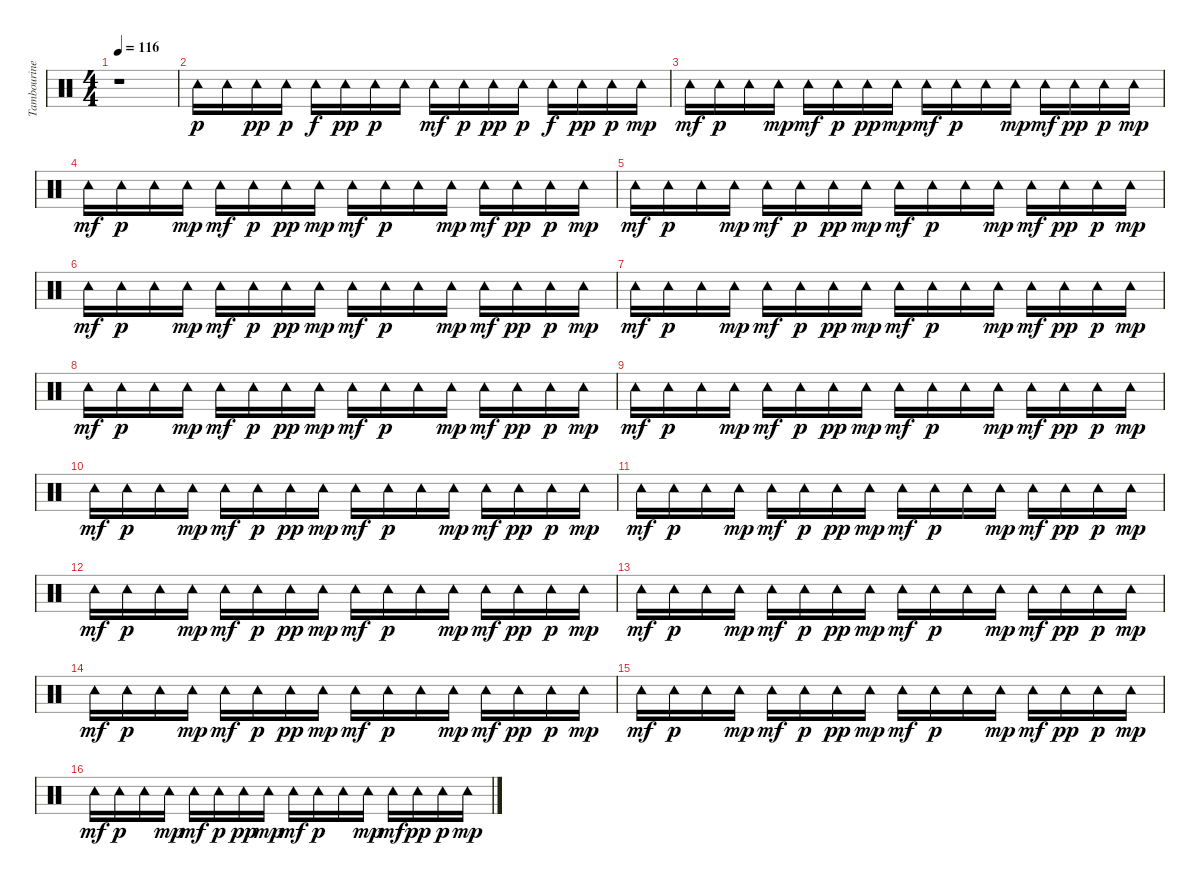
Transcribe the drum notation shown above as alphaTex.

\track ("Tambourine" "Tambourine") {instrument percussion}
\staff {score}
\articulation defaults
\ts (4 4)
\tempo 116
\clef neutral
\ks c
r.1{dy p} |
"Tambourine (hit)".16{volume 13} "Tambourine (hit)".16 "Tambourine (hit)".16{dy pp} "Tambourine (hit)".16{dy p} "Tambourine (hit)".16{dy f} "Tambourine (hit)".16{dy pp} "Tambourine (hit)".16{dy p} "Tambourine (hit)".16 "Tambourine (hit)".16{dy mf} "Tambourine (hit)".16{dy p} "Tambourine (hit)".16{dy pp} "Tambourine (hit)".16{dy p} "Tambourine (hit)".16{dy f} "Tambourine (hit)".16{dy pp} "Tambourine (hit)".16{dy p} "Tambourine (hit)".16{dy mp} |
"Tambourine (hit)".16{dy mf} "Tambourine (hit)".16{dy p} "Tambourine (hit)".16 "Tambourine (hit)".16{dy mp} "Tambourine (hit)".16{dy mf} "Tambourine (hit)".16{dy p} "Tambourine (hit)".16{dy pp} "Tambourine (hit)".16{dy mp} "Tambourine (hit)".16{dy mf} "Tambourine (hit)".16{dy p} "Tambourine (hit)".16 "Tambourine (hit)".16{dy mp} "Tambourine (hit)".16{dy mf} "Tambourine (hit)".16{dy pp} "Tambourine (hit)".16{dy p} "Tambourine (hit)".16{dy mp} |
"Tambourine (hit)".16{dy mf} "Tambourine (hit)".16{dy p} "Tambourine (hit)".16 "Tambourine (hit)".16{dy mp} "Tambourine (hit)".16{dy mf} "Tambourine (hit)".16{dy p} "Tambourine (hit)".16{dy pp} "Tambourine (hit)".16{dy mp} "Tambourine (hit)".16{dy mf} "Tambourine (hit)".16{dy p} "Tambourine (hit)".16 "Tambourine (hit)".16{dy mp} "Tambourine (hit)".16{dy mf} "Tambourine (hit)".16{dy pp} "Tambourine (hit)".16{dy p} "Tambourine (hit)".16{dy mp} |
"Tambourine (hit)".16{dy mf} "Tambourine (hit)".16{dy p} "Tambourine (hit)".16 "Tambourine (hit)".16{dy mp} "Tambourine (hit)".16{dy mf} "Tambourine (hit)".16{dy p} "Tambourine (hit)".16{dy pp} "Tambourine (hit)".16{dy mp} "Tambourine (hit)".16{dy mf} "Tambourine (hit)".16{dy p} "Tambourine (hit)".16 "Tambourine (hit)".16{dy mp} "Tambourine (hit)".16{dy mf} "Tambourine (hit)".16{dy pp} "Tambourine (hit)".16{dy p} "Tambourine (hit)".16{dy mp} |
"Tambourine (hit)".16{dy mf} "Tambourine (hit)".16{dy p} "Tambourine (hit)".16 "Tambourine (hit)".16{dy mp} "Tambourine (hit)".16{dy mf} "Tambourine (hit)".16{dy p} "Tambourine (hit)".16{dy pp} "Tambourine (hit)".16{dy mp} "Tambourine (hit)".16{dy mf} "Tambourine (hit)".16{dy p} "Tambourine (hit)".16 "Tambourine (hit)".16{dy mp} "Tambourine (hit)".16{dy mf} "Tambourine (hit)".16{dy pp} "Tambourine (hit)".16{dy p} "Tambourine (hit)".16{dy mp} |
"Tambourine (hit)".16{dy mf} "Tambourine (hit)".16{dy p} "Tambourine (hit)".16 "Tambourine (hit)".16{dy mp} "Tambourine (hit)".16{dy mf} "Tambourine (hit)".16{dy p} "Tambourine (hit)".16{dy pp} "Tambourine (hit)".16{dy mp} "Tambourine (hit)".16{dy mf} "Tambourine (hit)".16{dy p} "Tambourine (hit)".16 "Tambourine (hit)".16{dy mp} "Tambourine (hit)".16{dy mf} "Tambourine (hit)".16{dy pp} "Tambourine (hit)".16{dy p} "Tambourine (hit)".16{dy mp} |
"Tambourine (hit)".16{dy mf} "Tambourine (hit)".16{dy p} "Tambourine (hit)".16 "Tambourine (hit)".16{dy mp} "Tambourine (hit)".16{dy mf} "Tambourine (hit)".16{dy p} "Tambourine (hit)".16{dy pp} "Tambourine (hit)".16{dy mp} "Tambourine (hit)".16{dy mf} "Tambourine (hit)".16{dy p} "Tambourine (hit)".16 "Tambourine (hit)".16{dy mp} "Tambourine (hit)".16{dy mf} "Tambourine (hit)".16{dy pp} "Tambourine (hit)".16{dy p} "Tambourine (hit)".16{dy mp} |
"Tambourine (hit)".16{dy mf} "Tambourine (hit)".16{dy p} "Tambourine (hit)".16 "Tambourine (hit)".16{dy mp} "Tambourine (hit)".16{dy mf} "Tambourine (hit)".16{dy p} "Tambourine (hit)".16{dy pp} "Tambourine (hit)".16{dy mp} "Tambourine (hit)".16{dy mf} "Tambourine (hit)".16{dy p} "Tambourine (hit)".16 "Tambourine (hit)".16{dy mp} "Tambourine (hit)".16{dy mf} "Tambourine (hit)".16{dy pp} "Tambourine (hit)".16{dy p} "Tambourine (hit)".16{dy mp} |
"Tambourine (hit)".16{dy mf} "Tambourine (hit)".16{dy p} "Tambourine (hit)".16 "Tambourine (hit)".16{dy mp} "Tambourine (hit)".16{dy mf} "Tambourine (hit)".16{dy p} "Tambourine (hit)".16{dy pp} "Tambourine (hit)".16{dy mp} "Tambourine (hit)".16{dy mf} "Tambourine (hit)".16{dy p} "Tambourine (hit)".16 "Tambourine (hit)".16{dy mp} "Tambourine (hit)".16{dy mf} "Tambourine (hit)".16{dy pp} "Tambourine (hit)".16{dy p} "Tambourine (hit)".16{dy mp} |
"Tambourine (hit)".16{dy mf} "Tambourine (hit)".16{dy p} "Tambourine (hit)".16 "Tambourine (hit)".16{dy mp} "Tambourine (hit)".16{dy mf} "Tambourine (hit)".16{dy p} "Tambourine (hit)".16{dy pp} "Tambourine (hit)".16{dy mp} "Tambourine (hit)".16{dy mf} "Tambourine (hit)".16{dy p} "Tambourine (hit)".16 "Tambourine (hit)".16{dy mp} "Tambourine (hit)".16{dy mf} "Tambourine (hit)".16{dy pp} "Tambourine (hit)".16{dy p} "Tambourine (hit)".16{dy mp} |
"Tambourine (hit)".16{dy mf} "Tambourine (hit)".16{dy p} "Tambourine (hit)".16 "Tambourine (hit)".16{dy mp} "Tambourine (hit)".16{dy mf} "Tambourine (hit)".16{dy p} "Tambourine (hit)".16{dy pp} "Tambourine (hit)".16{dy mp} "Tambourine (hit)".16{dy mf} "Tambourine (hit)".16{dy p} "Tambourine (hit)".16 "Tambourine (hit)".16{dy mp} "Tambourine (hit)".16{dy mf} "Tambourine (hit)".16{dy pp} "Tambourine (hit)".16{dy p} "Tambourine (hit)".16{dy mp} |
"Tambourine (hit)".16{dy mf} "Tambourine (hit)".16{dy p} "Tambourine (hit)".16 "Tambourine (hit)".16{dy mp} "Tambourine (hit)".16{dy mf} "Tambourine (hit)".16{dy p} "Tambourine (hit)".16{dy pp} "Tambourine (hit)".16{dy mp} "Tambourine (hit)".16{dy mf} "Tambourine (hit)".16{dy p} "Tambourine (hit)".16 "Tambourine (hit)".16{dy mp} "Tambourine (hit)".16{dy mf} "Tambourine (hit)".16{dy pp} "Tambourine (hit)".16{dy p} "Tambourine (hit)".16{dy mp} |
"Tambourine (hit)".16{dy mf} "Tambourine (hit)".16{dy p} "Tambourine (hit)".16 "Tambourine (hit)".16{dy mp} "Tambourine (hit)".16{dy mf} "Tambourine (hit)".16{dy p} "Tambourine (hit)".16{dy pp} "Tambourine (hit)".16{dy mp} "Tambourine (hit)".16{dy mf} "Tambourine (hit)".16{dy p} "Tambourine (hit)".16 "Tambourine (hit)".16{dy mp} "Tambourine (hit)".16{dy mf} "Tambourine (hit)".16{dy pp} "Tambourine (hit)".16{dy p} "Tambourine (hit)".16{dy mp} |
"Tambourine (hit)".16{dy mf} "Tambourine (hit)".16{dy p} "Tambourine (hit)".16 "Tambourine (hit)".16{dy mp} "Tambourine (hit)".16{dy mf} "Tambourine (hit)".16{dy p} "Tambourine (hit)".16{dy pp} "Tambourine (hit)".16{dy mp} "Tambourine (hit)".16{dy mf} "Tambourine (hit)".16{dy p} "Tambourine (hit)".16 "Tambourine (hit)".16{dy mp} "Tambourine (hit)".16{dy mf} "Tambourine (hit)".16{dy pp} "Tambourine (hit)".16{dy p} "Tambourine (hit)".16{dy mp} |
"Tambourine (hit)".16{dy mf} "Tambourine (hit)".16{dy p} "Tambourine (hit)".16 "Tambourine (hit)".16{dy mp} "Tambourine (hit)".16{dy mf} "Tambourine (hit)".16{dy p} "Tambourine (hit)".16{dy pp} "Tambourine (hit)".16{dy mp} "Tambourine (hit)".16{dy mf} "Tambourine (hit)".16{dy p} "Tambourine (hit)".16 "Tambourine (hit)".16{dy mp} "Tambourine (hit)".16{dy mf} "Tambourine (hit)".16{dy pp} "Tambourine (hit)".16{dy p} "Tambourine (hit)".16{dy mp}
